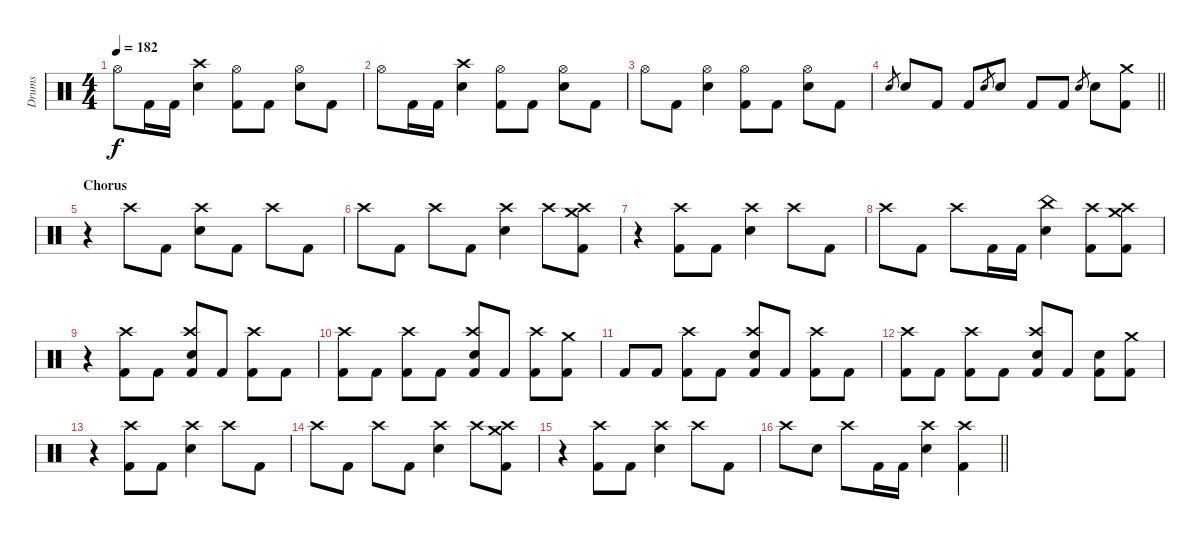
\track ("Drums" "Drums") {instrument percussion}
\staff {score}
\articulation defaults
\ts (4 4)
\tempo 182
\clef neutral
\ks c "Hi-Hat (open)".8{dy f} "Kick (hit) 2".16 "Kick (hit) 2".16
("Crash high (hit)" "Snare (hit) 2").4 ("Hi-Hat (open)" "Kick (hit) 2").8 "Kick (hit) 2".8 ("Hi-Hat (open)" "Snare (hit) 2").8 "Kick (hit) 2".8 |
"Hi-Hat (open)".8 "Kick (hit) 2".16 "Kick (hit) 2".16 ("Crash high (hit)" "Snare (hit) 2").4 ("Hi-Hat (open)" "Kick (hit) 2").8 "Kick (hit) 2".8 ("Hi-Hat (open)" "Snare (hit) 2").8 "Kick (hit) 2".8 |
"Hi-Hat (open)".8 "Kick (hit) 2".8 ("Hi-Hat (open)" "Snare (hit) 2").4 ("Hi-Hat (open)" "Kick (hit) 2").8 "Kick (hit) 2".8 ("Hi-Hat (open)" "Snare (hit) 2").8 "Kick (hit) 2".8 |
\barLineRight lightlight "Snare (hit) 2".8{gr} "Snare (hit) 2".8 "Kick (hit) 2".8 "Kick (hit) 2".8 "Snare (hit) 2".8{gr} "Snare (hit) 2".8 "Kick (hit) 2".8 "Kick (hit) 2".8 "Snare (hit) 2".8{gr} "Snare (hit) 2".8
("Crash medium (hit)" "Kick (hit) 2").8 |
\section ("" "Chorus")
r.4 "Crash high (hit)".8 "Kick (hit) 2".8 ("Crash high (hit)" "Snare (hit) 2").8 "Kick (hit) 2".8 "Crash high (hit)".8 "Kick (hit) 2".8 |
"Crash high (hit)".8 "Kick (hit) 2".8 "Crash high (hit)".8 "Kick (hit) 2".8 ("Crash high (hit)" "Snare (hit) 2").4 "Crash high (hit)".8 ("Crash medium (hit)" "Crash high (hit)" "Kick (hit) 2").8 |
r.4 ("Crash high (hit)" "Kick (hit) 2").8 "Kick (hit) 2".8 ("Crash high (hit)" "Snare (hit) 2").4 "Crash high (hit)".8 "Kick (hit) 2".8 |
"Crash high (hit)".8 "Kick (hit) 2".8 "Crash high (hit)".8 "Kick (hit) 2".16 "Kick (hit) 2".16 ("China (hit)" "Snare (hit) 2").4 ("Crash high (hit)" "Kick (hit) 2").8 ("Crash medium (hit)" "Crash high (hit)" "Kick (hit) 2").8 |
r.4 ("Crash high (hit)" "Kick (hit) 2").8 "Kick (hit) 2".8 ("Crash high (hit)" "Snare (hit) 2" "Kick (hit) 2").8 "Kick (hit) 2".8 ("Crash high (hit)" "Kick (hit) 2").8 "Kick (hit) 2".8 |
("Crash high (hit)" "Kick (hit) 2").8 "Kick (hit) 2".8 ("Crash high (hit)" "Kick (hit) 2").8 "Kick (hit) 2".8 ("Crash high (hit)" "Snare (hit) 2" "Kick (hit) 2").8 "Kick (hit) 2".8 ("Crash high (hit)" "Kick (hit) 2").8 ("Crash medium (hit)" "Kick (hit) 2").8 |
"Kick (hit) 2".8 "Kick (hit) 2".8 ("Crash high (hit)" "Kick (hit) 2").8 "Kick (hit) 2".8 ("Crash high (hit)" "Snare (hit) 2" "Kick (hit) 2").8 "Kick (hit) 2".8 ("Crash high (hit)" "Kick (hit) 2").8 "Kick (hit) 2".8 |
("Crash high (hit)" "Kick (hit) 2").8 "Kick (hit) 2".8 ("Crash high (hit)" "Kick (hit) 2").8 "Kick (hit) 2".8 ("Crash high (hit)" "Snare (hit) 2" "Kick (hit) 2").8 "Kick (hit) 2".8 ("Snare (hit) 2" "Kick (hit) 2").8 ("Crash medium (hit)" "Kick (hit) 2").8 |
r.4 ("Crash high (hit)" "Kick (hit) 2").8 "Kick (hit) 2".8 ("Crash high (hit)" "Snare (hit) 2").4 "Crash high (hit)".8 "Kick (hit) 2".8 |
"Crash high (hit)".8 "Kick (hit) 2".8 "Crash high (hit)".8 "Kick (hit) 2".8 ("Crash high (hit)" "Snare (hit) 2").4 "Crash high (hit)".8 ("Crash medium (hit)" "Crash high (hit)" "Kick (hit) 2").8 |
r.4 ("Crash high (hit)" "Kick (hit) 2").8 "Kick (hit) 2".8 ("Crash high (hit)" "Snare (hit) 2").4 "Crash high (hit)".8 "Kick (hit) 2".8 |
\barLineRight lightlight "Crash high (hit)".8 "Snare (hit) 2".8 "Crash high (hit)".8 "Kick (hit) 2".16 "Kick (hit) 2".16
("Crash high (hit)" "Snare (hit) 2").4 ("Crash high (hit)" "Kick (hit) 2").4
